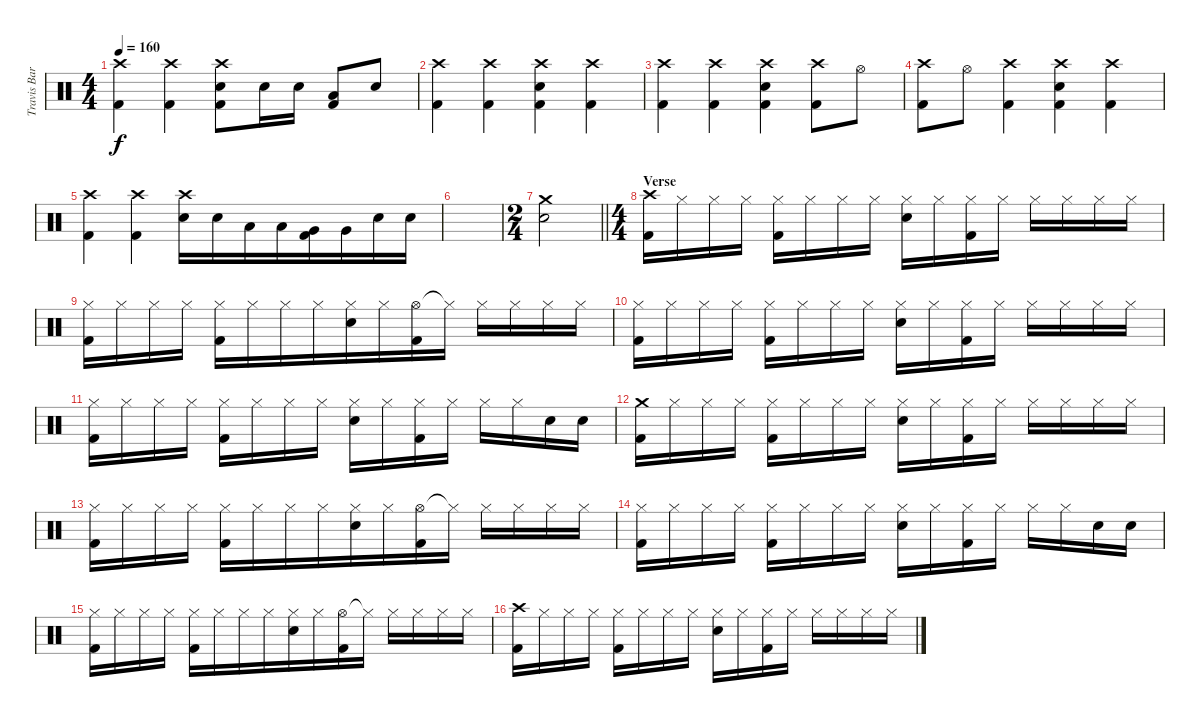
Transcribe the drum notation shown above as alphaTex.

\track ("Travis Barker - Drums" "Travis Bar") {instrument percussion}
\staff {score}
\articulation defaults
\ts (4 4)
\tempo 160
\clef neutral
\ks c
("Crash high (hit)" "Kick (hit) 2").4{dy f beam merge} ("Crash high (hit)" "Kick (hit) 2").4 ("Crash high (hit)" "Electric Snare (hit)" "Kick (hit) 2").8 "Electric Snare (hit)".16 "Electric Snare (hit)".16 ("Low Tom (hit)" "Kick (hit) 2").8 "Electric Snare (hit)".8 |
("Crash high (hit)" "Kick (hit) 2").4{beam merge} ("Crash high (hit)" "Kick (hit) 2").4 ("Crash high (hit)" "Electric Snare (hit)" "Kick (hit) 2").4 ("Crash high (hit)" "Kick (hit) 2").4 |
("Crash high (hit)" "Kick (hit) 2").4{beam merge} ("Crash high (hit)" "Kick (hit) 2").4 ("Crash high (hit)" "Electric Snare (hit)" "Kick (hit) 2").4 ("Crash high (hit)" "Kick (hit) 2").8 "Hi-Hat (open)".8 |
("Crash high (hit)" "Kick (hit) 2").8{beam merge} "Hi-Hat (open)".8 ("Crash high (hit)" "Kick (hit) 2").4 ("Crash high (hit)" "Electric Snare (hit)" "Kick (hit) 2").4 ("Crash high (hit)" "Kick (hit) 2").4 |
("Crash high (hit)" "Kick (hit) 2").4{beam merge} ("Crash high (hit)" "Kick (hit) 2").4 ("Crash high (hit)" "Electric Snare (hit)").16 "Electric Snare (hit)".16 "Low Tom (hit)".16{beam merge} "Low Tom (hit)".16{beam merge} ("Very Low Tom (hit)" "Kick (hit) 2").16 "Very Low Tom (hit)".16 "Electric Snare (hit)".16 "Electric Snare (hit)".16 |
|
\ts (2 4)
\barLineRight lightlight
("Crash medium (hit)" "Electric Snare (hit)").2 |
\ts (4 4)
\section ("" "Verse")
("Crash high (hit)" "Kick (hit) 2").16 "Hi-Hat (closed)".16{beam merge} "Hi-Hat (closed)".16 "Hi-Hat (closed)".16 ("Hi-Hat (closed)" "Kick (hit) 2").16{beam merge} "Hi-Hat (closed)".16 "Hi-Hat (closed)".16 "Hi-Hat (closed)".16 ("Hi-Hat (closed)" "Electric Snare (hit)").16 "Hi-Hat (closed)".16 ("Hi-Hat (closed)" "Kick (hit) 2").16 "Hi-Hat (closed)".16 "Hi-Hat (closed)".16{beam merge} "Hi-Hat (closed)".16 "Hi-Hat (closed)".16 "Hi-Hat (closed)".16 |
("Hi-Hat (closed)" "Kick (hit) 2").16 "Hi-Hat (closed)".16{beam merge} "Hi-Hat (closed)".16 "Hi-Hat (closed)".16 ("Hi-Hat (closed)" "Kick (hit) 2").16 "Hi-Hat (closed)".16{beam merge} "Hi-Hat (closed)".16 "Hi-Hat (closed)".16{beam merge} ("Hi-Hat (closed)" "Electric Snare (hit)").16{beam merge} "Hi-Hat (closed)".16 ("Hi-Hat (open)" "Kick (hit) 2").16{beam merge} "Hi-Hat (closed)"{t}.16 "Hi-Hat (closed)".16{beam merge} "Hi-Hat (closed)".16{beam merge} "Hi-Hat (closed)".16{beam merge} "Hi-Hat (closed)".16 |
("Hi-Hat (closed)" "Kick (hit) 2").16{beam merge} "Hi-Hat (closed)".16{beam merge} "Hi-Hat (closed)".16{beam merge} "Hi-Hat (closed)".16 ("Hi-Hat (closed)" "Kick (hit) 2").16 "Hi-Hat (closed)".16{beam merge} "Hi-Hat (closed)".16{beam merge} "Hi-Hat (closed)".16 ("Hi-Hat (closed)" "Electric Snare (hit)").16 "Hi-Hat (closed)".16 ("Hi-Hat (closed)" "Kick (hit) 2").16 "Hi-Hat (closed)".16 "Hi-Hat (closed)".16{beam merge} "Hi-Hat (closed)".16 "Hi-Hat (closed)".16 "Hi-Hat (closed)".16 |
("Hi-Hat (closed)" "Kick (hit) 2").16 "Hi-Hat (closed)".16{beam merge} "Hi-Hat (closed)".16 "Hi-Hat (closed)".16 ("Hi-Hat (closed)" "Kick (hit) 2").16 "Hi-Hat (closed)".16{beam merge} "Hi-Hat (closed)".16 "Hi-Hat (closed)".16 ("Hi-Hat (closed)" "Electric Snare (hit)").16 "Hi-Hat (closed)".16 ("Hi-Hat (closed)" "Kick (hit) 2").16 "Hi-Hat (closed)".16 "Hi-Hat (closed)".16{beam merge} "Hi-Hat (closed)".16 "Electric Snare (hit)".16 "Electric Snare (hit)".16 |
("Crash medium (hit)" "Kick (hit) 2").16 "Hi-Hat (closed)".16{beam merge} "Hi-Hat (closed)".16 "Hi-Hat (closed)".16 ("Hi-Hat (closed)" "Kick (hit) 2").16{beam merge} "Hi-Hat (closed)".16 "Hi-Hat (closed)".16 "Hi-Hat (closed)".16 ("Hi-Hat (closed)" "Electric Snare (hit)").16 "Hi-Hat (closed)".16 ("Hi-Hat (closed)" "Kick (hit) 2").16 "Hi-Hat (closed)".16 "Hi-Hat (closed)".16{beam merge} "Hi-Hat (closed)".16 "Hi-Hat (closed)".16 "Hi-Hat (closed)".16 |
("Hi-Hat (closed)" "Kick (hit) 2").16 "Hi-Hat (closed)".16{beam merge} "Hi-Hat (closed)".16 "Hi-Hat (closed)".16 ("Hi-Hat (closed)" "Kick (hit) 2").16 "Hi-Hat (closed)".16{beam merge} "Hi-Hat (closed)".16 "Hi-Hat (closed)".16{beam merge} ("Hi-Hat (closed)" "Electric Snare (hit)").16{beam merge} "Hi-Hat (closed)".16 ("Hi-Hat (open)" "Kick (hit) 2").16{beam merge} "Hi-Hat (closed)"{t}.16 "Hi-Hat (closed)".16{beam merge} "Hi-Hat (closed)".16{beam merge} "Hi-Hat (closed)".16{beam merge} "Hi-Hat (closed)".16 |
("Hi-Hat (closed)" "Kick (hit) 2").16 "Hi-Hat (closed)".16{beam merge} "Hi-Hat (closed)".16 "Hi-Hat (closed)".16 ("Hi-Hat (closed)" "Kick (hit) 2").16{beam merge} "Hi-Hat (closed)".16 "Hi-Hat (closed)".16 "Hi-Hat (closed)".16 ("Hi-Hat (closed)" "Electric Snare (hit)").16 "Hi-Hat (closed)".16 ("Hi-Hat (closed)" "Kick (hit) 2").16 "Hi-Hat (closed)".16 "Hi-Hat (closed)".16{beam merge} "Hi-Hat (closed)".16 "Electric Snare (hit)".16 "Electric Snare (hit)".16 |
("Hi-Hat (closed)" "Kick (hit) 2").16 "Hi-Hat (closed)".16{beam merge} "Hi-Hat (closed)".16 "Hi-Hat (closed)".16 ("Hi-Hat (closed)" "Kick (hit) 2").16 "Hi-Hat (closed)".16{beam merge} "Hi-Hat (closed)".16 "Hi-Hat (closed)".16{beam merge} ("Hi-Hat (closed)" "Electric Snare (hit)").16{beam merge} "Hi-Hat (closed)".16 ("Hi-Hat (open)" "Kick (hit) 2").16{beam merge} "Hi-Hat (closed)"{t}.16 "Hi-Hat (closed)".16{beam merge} "Hi-Hat (closed)".16{beam merge} "Hi-Hat (closed)".16{beam merge} "Hi-Hat (closed)".16 |
("Crash high (hit)" "Kick (hit) 2").16 "Hi-Hat (closed)".16{beam merge} "Hi-Hat (closed)".16 "Hi-Hat (closed)".16 ("Hi-Hat (closed)" "Kick (hit) 2").16{beam merge} "Hi-Hat (closed)".16 "Hi-Hat (closed)".16 "Hi-Hat (closed)".16 ("Hi-Hat (closed)" "Electric Snare (hit)").16 "Hi-Hat (closed)".16 ("Hi-Hat (closed)" "Kick (hit) 2").16 "Hi-Hat (closed)".16 "Hi-Hat (closed)".16{beam merge} "Hi-Hat (closed)".16 "Hi-Hat (closed)".16 "Hi-Hat (closed)".16
